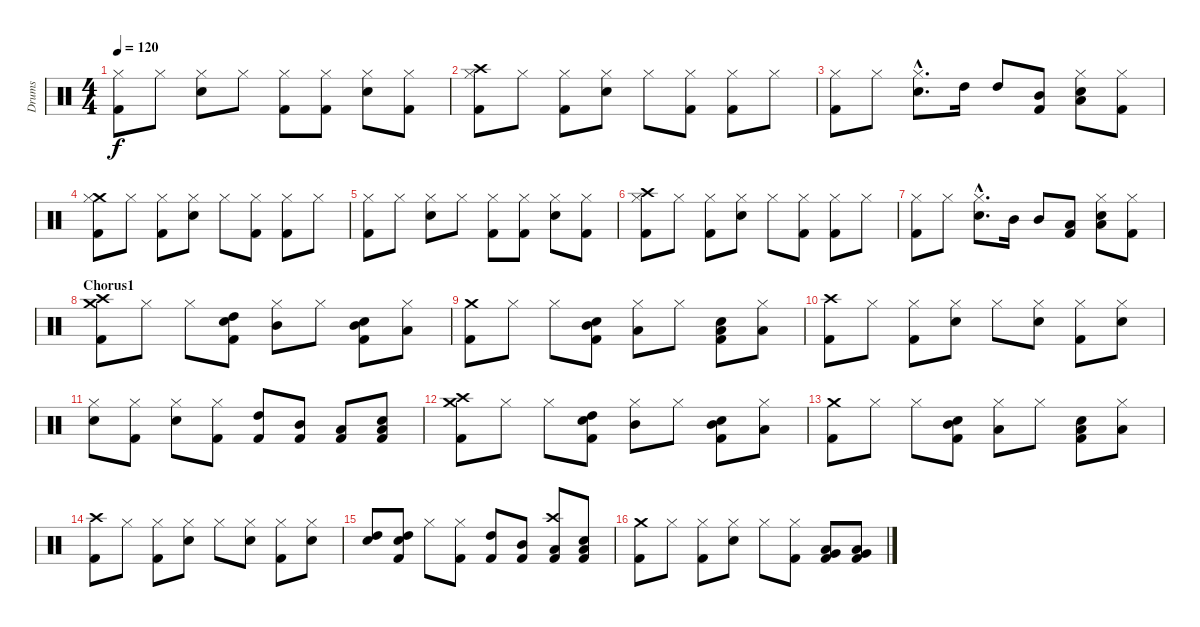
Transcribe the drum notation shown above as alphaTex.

\track ("Drums" "Drums") {instrument percussion}
\staff {score}
\articulation defaults
\ts (4 4)
\tempo 120
\clef neutral
\ks c
("Hi-Hat (closed)" "Kick (hit) 2").8{dy f} "Hi-Hat (closed)".8 ("Hi-Hat (closed)" "Snare (hit) 2").8 "Hi-Hat (closed)".8 ("Hi-Hat (closed)" "Kick (hit) 2").8 ("Hi-Hat (closed)" "Kick (hit) 2").8 ("Hi-Hat (closed)" "Snare (hit) 2").8 ("Hi-Hat (closed)" "Kick (hit) 2").8 |
("Crash high (hit)" "Hi-Hat (closed)" "Kick (hit) 2").8 "Hi-Hat (closed)".8 ("Hi-Hat (closed)" "Kick (hit) 2").8 ("Hi-Hat (closed)" "Snare (hit) 2").8 "Hi-Hat (closed)".8 ("Hi-Hat (closed)" "Kick (hit) 2").8 ("Hi-Hat (closed)" "Kick (hit) 2").8 "Hi-Hat (closed)".8 |
("Hi-Hat (closed)" "Kick (hit) 2").8 "Hi-Hat (closed)".8 ("Hi-Hat (closed)"{hac} "Snare (hit) 2"{hac}).8{d} "High Tom (hit)".16 "High Tom (hit)".8 ("Mid Tom (hit)" "Kick (hit) 2").8 ("Hi-Hat (closed)" "Low Tom (hit)" "Snare (hit) 2").8 ("Hi-Hat (closed)" "Kick (hit) 2").8 |
("Crash medium (hit)" "Hi-Hat (closed)" "Kick (hit) 2").8 "Hi-Hat (closed)".8 ("Hi-Hat (closed)" "Kick (hit) 2").8 ("Hi-Hat (closed)" "Snare (hit) 2").8 "Hi-Hat (closed)".8 ("Hi-Hat (closed)" "Kick (hit) 2").8 ("Hi-Hat (closed)" "Kick (hit) 2").8 "Hi-Hat (closed)".8 |
("Hi-Hat (closed)" "Kick (hit) 2").8 "Hi-Hat (closed)".8 ("Hi-Hat (closed)" "Snare (hit) 2").8 "Hi-Hat (closed)".8 ("Hi-Hat (closed)" "Kick (hit) 2").8 ("Hi-Hat (closed)" "Kick (hit) 2").8 ("Hi-Hat (closed)" "Snare (hit) 2").8 ("Hi-Hat (closed)" "Kick (hit) 2").8 |
("Crash high (hit)" "Hi-Hat (closed)" "Kick (hit) 2").8 "Hi-Hat (closed)".8 ("Hi-Hat (closed)" "Kick (hit) 2").8 ("Hi-Hat (closed)" "Snare (hit) 2").8 "Hi-Hat (closed)".8 ("Hi-Hat (closed)" "Kick (hit) 2").8 ("Hi-Hat (closed)" "Kick (hit) 2").8 "Hi-Hat (closed)".8 |
("Hi-Hat (closed)" "Kick (hit) 2").8 "Hi-Hat (closed)".8 ("Hi-Hat (closed)"{hac} "Snare (hit) 2"{hac}).8{d} "Mid Tom (hit)".16 "Mid Tom (hit)".8 ("Low Tom (hit)" "Kick (hit) 2").8 ("Hi-Hat (closed)" "Low Tom (hit)" "Snare (hit) 2").8 ("Hi-Hat (closed)" "Kick (hit) 2").8 |
\section ("" "Chorus1")
("Crash medium (hit)" "Crash high (hit)" "Kick (hit) 2").8 "Hi-Hat (closed)".8 "Hi-Hat (closed)".8 ("High Tom (hit)" "Snare (hit) 2" "Kick (hit) 2").8 ("Hi-Hat (closed)" "Mid Tom (hit)").8 "Hi-Hat (closed)".8 ("Mid Tom (hit)" "Snare (hit) 2" "Kick (hit) 2").8 ("Hi-Hat (closed)" "Low Tom (hit)").8 |
("Crash medium (hit)" "Kick (hit) 2").8 "Hi-Hat (closed)".8 "Hi-Hat (closed)".8 ("Mid Tom (hit)" "Snare (hit) 2" "Kick (hit) 2").8 ("Hi-Hat (closed)" "Low Tom (hit)").8 "Hi-Hat (closed)".8 ("Low Tom (hit)" "Snare (hit) 2" "Kick (hit) 2").8 ("Hi-Hat (closed)" "Low Floor Tom (hit)").8 |
("Crash high (hit)" "Kick (hit) 2").8 "Hi-Hat (closed)".8 ("Hi-Hat (closed)" "Kick (hit) 2").8 ("Hi-Hat (closed)" "Snare (hit) 2").8 "Hi-Hat (closed)".8 ("Hi-Hat (closed)" "Snare (hit) 2").8 ("Hi-Hat (closed)" "Kick (hit) 2").8 ("Hi-Hat (closed)" "Snare (hit) 2").8 |
("Hi-Hat (closed)" "Snare (hit) 2").8 ("Hi-Hat (closed)" "Kick (hit) 2").8 ("Hi-Hat (closed)" "Snare (hit) 2").8 ("Hi-Hat (closed)" "Kick (hit) 2").8 ("High Tom (hit)" "Kick (hit) 2").8 ("Mid Tom (hit)" "Kick (hit) 2").8 ("Low Tom (hit)" "Kick (hit) 2").8 ("Low Floor Tom (hit)" "Snare (hit) 2" "Kick (hit) 2").8 |
("Crash medium (hit)" "Crash high (hit)" "Kick (hit) 2").8 "Hi-Hat (closed)".8 "Hi-Hat (closed)".8 ("High Tom (hit)" "Snare (hit) 2" "Kick (hit) 2").8 ("Hi-Hat (closed)" "Mid Tom (hit)").8 "Hi-Hat (closed)".8 ("Mid Tom (hit)" "Snare (hit) 2" "Kick (hit) 2").8 ("Hi-Hat (closed)" "Low Tom (hit)").8 |
("Crash medium (hit)" "Kick (hit) 2").8 "Hi-Hat (closed)".8 "Hi-Hat (closed)".8 ("Mid Tom (hit)" "Snare (hit) 2" "Kick (hit) 2").8 ("Hi-Hat (closed)" "Low Tom (hit)").8 "Hi-Hat (closed)".8 ("Low Tom (hit)" "Snare (hit) 2" "Kick (hit) 2").8 ("Hi-Hat (closed)" "Low Floor Tom (hit)").8 |
("Crash high (hit)" "Kick (hit) 2").8 "Hi-Hat (closed)".8 ("Hi-Hat (closed)" "Kick (hit) 2").8 ("Hi-Hat (closed)" "Snare (hit) 2").8 "Hi-Hat (closed)".8 ("Hi-Hat (closed)" "Snare (hit) 2").8 ("Hi-Hat (closed)" "Kick (hit) 2").8 ("Hi-Hat (closed)" "Snare (hit) 2").8 |
("Snare (hit) 2" "High Tom (hit)").8 ("Snare (hit) 2" "High Tom (hit)" "Kick (hit) 2").8 "Hi-Hat (closed)".8 ("Hi-Hat (closed)" "Kick (hit) 2").8 ("High Tom (hit)" "Kick (hit) 2").8 ("Mid Tom (hit)" "Kick (hit) 2").8 ("Crash high (hit)" "Low Tom (hit)" "Kick (hit) 2").8 ("Low Floor Tom (hit)" "Snare (hit) 2" "Kick (hit) 2").8 |
("Crash medium (hit)" "Kick (hit) 2").8 "Hi-Hat (closed)".8 ("Hi-Hat (closed)" "Kick (hit) 2").8 ("Hi-Hat (closed)" "Snare (hit) 2").8 "Hi-Hat (closed)".8 ("Hi-Hat (closed)" "Kick (hit) 2").8 ("Low Floor Tom (hit)" "Very Low Tom (hit)" "Kick (hit) 2").8 ("Low Floor Tom (hit)" "Very Low Tom (hit)" "Kick (hit) 2").8
